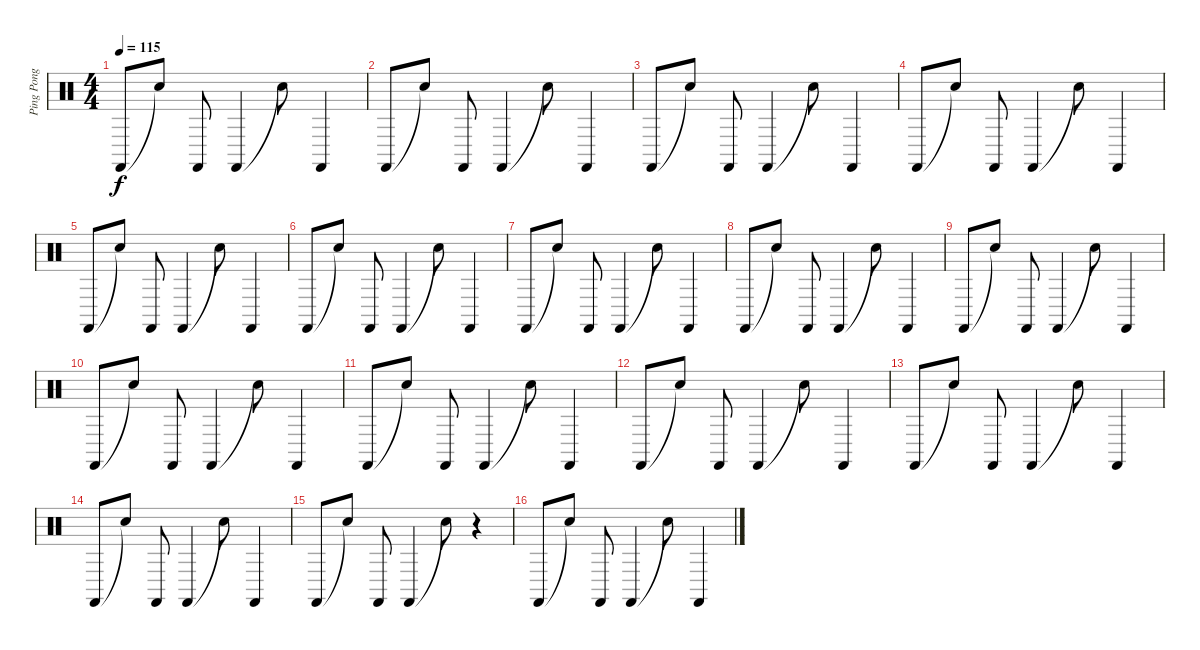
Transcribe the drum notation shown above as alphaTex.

\track ("Ping Pong" "Ping Pong") {instrument percussion}
\staff {score}
\articulation defaults
\ts (4 4)
\tempo 115
\clef neutral
\ks c "Castanets (hit)".8{dy f} "Snare (hit)"{t}.8 "Castanets (hit)".8 "Castanets (hit)".4 "Snare (hit)"{t}.8 "Castanets (hit)".4
|
"Castanets (hit)".8 "Snare (hit)"{t}.8 "Castanets (hit)".8 "Castanets (hit)".4 "Snare (hit)"{t}.8 "Castanets (hit)".4 |
"Castanets (hit)".8 "Snare (hit)"{t}.8 "Castanets (hit)".8 "Castanets (hit)".4 "Snare (hit)"{t}.8 "Castanets (hit)".4 |
"Castanets (hit)".8 "Snare (hit)"{t}.8 "Castanets (hit)".8 "Castanets (hit)".4 "Snare (hit)"{t}.8 "Castanets (hit)".4 |
"Castanets (hit)".8 "Snare (hit)"{t}.8 "Castanets (hit)".8 "Castanets (hit)".4 "Snare (hit)"{t}.8 "Castanets (hit)".4 |
"Castanets (hit)".8 "Snare (hit)"{t}.8 "Castanets (hit)".8 "Castanets (hit)".4 "Snare (hit)"{t}.8 "Castanets (hit)".4 |
"Castanets (hit)".8 "Snare (hit)"{t}.8 "Castanets (hit)".8 "Castanets (hit)".4 "Snare (hit)"{t}.8 "Castanets (hit)".4 |
"Castanets (hit)".8 "Snare (hit)"{t}.8 "Castanets (hit)".8 "Castanets (hit)".4 "Snare (hit)"{t}.8 "Castanets (hit)".4 |
"Castanets (hit)".8 "Snare (hit)"{t}.8 "Castanets (hit)".8 "Castanets (hit)".4 "Snare (hit)"{t}.8 "Castanets (hit)".4 |
"Castanets (hit)".8 "Snare (hit)"{t}.8 "Castanets (hit)".8 "Castanets (hit)".4 "Snare (hit)"{t}.8 "Castanets (hit)".4 |
"Castanets (hit)".8 "Snare (hit)"{t}.8 "Castanets (hit)".8 "Castanets (hit)".4 "Snare (hit)"{t}.8 "Castanets (hit)".4 |
"Castanets (hit)".8 "Snare (hit)"{t}.8 "Castanets (hit)".8 "Castanets (hit)".4 "Snare (hit)"{t}.8 "Castanets (hit)".4 |
"Castanets (hit)".8 "Snare (hit)"{t}.8 "Castanets (hit)".8 "Castanets (hit)".4 "Snare (hit)"{t}.8 "Castanets (hit)".4 |
"Castanets (hit)".8 "Snare (hit)"{t}.8 "Castanets (hit)".8 "Castanets (hit)".4 "Snare (hit)"{t}.8 "Castanets (hit)".4 |
"Castanets (hit)".8 "Snare (hit)"{t}.8 "Castanets (hit)".8 "Castanets (hit)".4 "Snare (hit)"{t}.8 r.4 |
"Castanets (hit)".8 "Snare (hit)"{t}.8 "Castanets (hit)".8 "Castanets (hit)".4 "Snare (hit)"{t}.8 "Castanets (hit)".4
